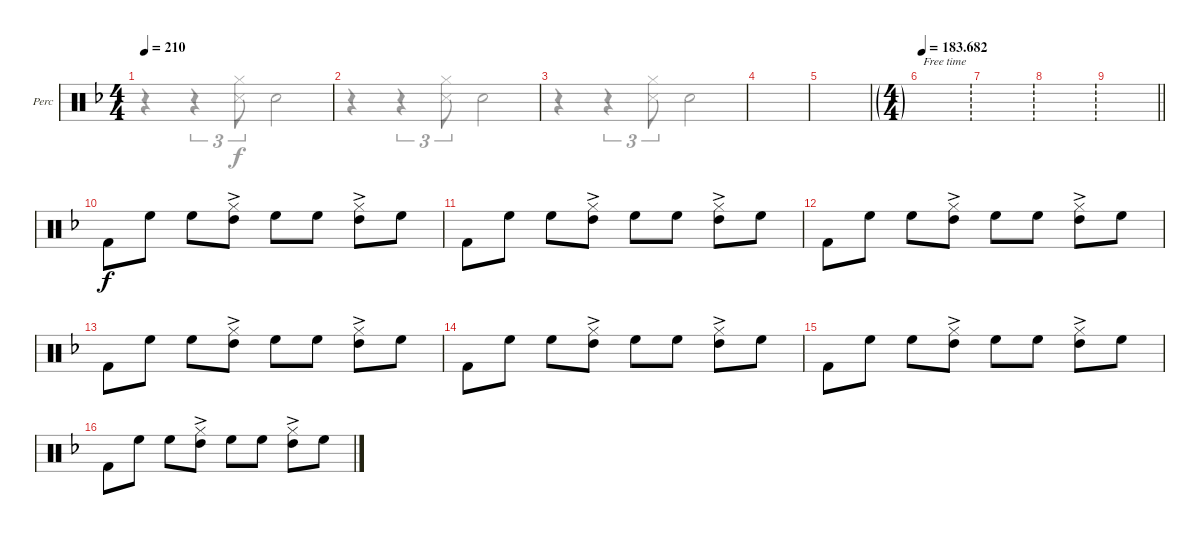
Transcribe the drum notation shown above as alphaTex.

\defaultSystemsLayout 4
\bracketExtendMode groupsimilarinstruments
\firstSystemTrackNameOrientation horizontal
\otherSystemsTrackNameOrientation horizontal
\track ("Body Percussion" "Perc") {instrument percussion}
\staff {score}
\articulation defaults
\voice
\ts (4 4)
\tempo 210
\clef neutral
\ks dminor
|
|
\scale
0.383401 |
\scale
0.311876 |
\scale
0.304825 |
\ft
\tempo
183.682 |
\ft
|
\ft
|
\ft
\barLineRight lightlight
|
"Kick (hit) 2"{acc forcenatural}.8{dy f beam Down} "High Floor Tom (hit)"{acc forcenatural}.8{beam Down} "High Floor Tom (hit)"{acc forcenatural}.8{beam Down} ("Hi-Hat (closed)"{acc forcenatural} "High Tom (hit)"{ac acc forcenatural}).8{beam Down} "High Floor Tom (hit)"{acc forcenatural}.8{beam Down} "High Floor Tom (hit)"{acc forcenatural}.8{beam Down} ("Hi-Hat (closed)"{acc forcenatural} "High Tom (hit)"{ac acc forcenatural}).8{beam Down} "High Floor Tom (hit)"{acc forcenatural}.8{beam Down} |
"Kick (hit) 2"{acc forcenatural}.8{beam Down} "High Floor Tom (hit)"{acc forcenatural}.8{beam Down} "High Floor Tom (hit)"{acc forcenatural}.8{beam Down} ("Hi-Hat (closed)"{acc forcenatural} "High Tom (hit)"{ac acc forcenatural}).8{beam Down} "High Floor Tom (hit)"{acc forcenatural}.8{beam Down} "High Floor Tom (hit)"{acc forcenatural}.8{beam Down} ("Hi-Hat (closed)"{acc forcenatural} "High Tom (hit)"{ac acc forcenatural}).8{beam Down} "High Floor Tom (hit)"{acc forcenatural}.8{beam Down} |
"Kick (hit) 2"{acc forcenatural}.8{beam Down} "High Floor Tom (hit)"{acc forcenatural}.8{beam Down} "High Floor Tom (hit)"{acc forcenatural}.8{beam Down} ("Hi-Hat (closed)"{acc forcenatural} "High Tom (hit)"{ac acc forcenatural}).8{beam Down} "High Floor Tom (hit)"{acc forcenatural}.8{beam Down} "High Floor Tom (hit)"{acc forcenatural}.8{beam Down} ("Hi-Hat (closed)"{acc forcenatural} "High Tom (hit)"{ac acc forcenatural}).8{beam Down} "High Floor Tom (hit)"{acc forcenatural}.8{beam Down} |
"Kick (hit) 2"{acc forcenatural}.8{beam Down} "High Floor Tom (hit)"{acc forcenatural}.8{beam Down} "High Floor Tom (hit)"{acc forcenatural}.8{beam Down} ("Hi-Hat (closed)"{acc forcenatural} "High Tom (hit)"{ac acc forcenatural}).8{beam Down} "High Floor Tom (hit)"{acc forcenatural}.8{beam Down} "High Floor Tom (hit)"{acc forcenatural}.8{beam Down} ("Hi-Hat (closed)"{acc forcenatural} "High Tom (hit)"{ac acc forcenatural}).8{beam Down} "High Floor Tom (hit)"{acc forcenatural}.8{beam Down} |
"Kick (hit) 2"{acc forcenatural}.8{beam Down} "High Floor Tom (hit)"{acc forcenatural}.8{beam Down} "High Floor Tom (hit)"{acc forcenatural}.8{beam Down} ("Hi-Hat (closed)"{acc forcenatural} "High Tom (hit)"{ac acc forcenatural}).8{beam Down} "High Floor Tom (hit)"{acc forcenatural}.8{beam Down} "High Floor Tom (hit)"{acc forcenatural}.8{beam Down} ("Hi-Hat (closed)"{acc forcenatural} "High Tom (hit)"{ac acc forcenatural}).8{beam Down} "High Floor Tom (hit)"{acc forcenatural}.8{beam Down} |
"Kick (hit) 2"{acc forcenatural}.8{beam Down} "High Floor Tom (hit)"{acc forcenatural}.8{beam Down} "High Floor Tom (hit)"{acc forcenatural}.8{beam Down} ("Hi-Hat (closed)"{acc forcenatural} "High Tom (hit)"{ac acc forcenatural}).8{beam Down} "High Floor Tom (hit)"{acc forcenatural}.8{beam Down} "High Floor Tom (hit)"{acc forcenatural}.8{beam Down} ("Hi-Hat (closed)"{acc forcenatural} "High Tom (hit)"{ac acc forcenatural}).8{beam Down} "High Floor Tom (hit)"{acc forcenatural}.8{beam Down} |
"Kick (hit) 2"{acc forcenatural}.8{beam Down} "High Floor Tom (hit)"{acc forcenatural}.8{beam Down} "High Floor Tom (hit)"{acc forcenatural}.8{beam Down} ("Hi-Hat (closed)"{acc forcenatural} "High Tom (hit)"{ac acc forcenatural}).8{beam Down} "High Floor Tom (hit)"{acc forcenatural}.8{beam Down} "High Floor Tom (hit)"{acc forcenatural}.8{beam Down} ("Hi-Hat (closed)"{acc forcenatural} "High Tom (hit)"{ac acc forcenatural}).8{beam Down} "High Floor Tom (hit)"{acc forcenatural}.8{beam Down}
\voice
\clef neutral
\ottava regular
\simile none
\ks dminor
r.4{dy f beam Down} r.4{tu (3 2) beam Down} ("Snare (side stick) 3"{acc forcenatural} "Hi-Hat (closed)"{acc forcenatural}).8{tu (3 2) beam Down} "Snare (hit) 2"{acc forcenatural}.2{beam Down} |
r.4{beam Down} r.4{tu (3 2) beam Down} ("Snare (side stick) 3"{acc forcenatural} "Hi-Hat (closed)"{acc forcenatural}).8{tu (3 2) beam Down} "Snare (hit) 2"{acc forcenatural}.2{beam Down} |
r.4{beam Down} r.4{tu (3 2) beam Down} ("Snare (side stick) 3"{acc forcenatural} "Hi-Hat (closed)"{acc forcenatural}).8{tu (3 2) beam Down} "Snare (hit) 2"{acc forcenatural}.2{beam Down} |
|
|
|
|
|
\barLineRight lightlight
|
|
|
|
|
|
|
